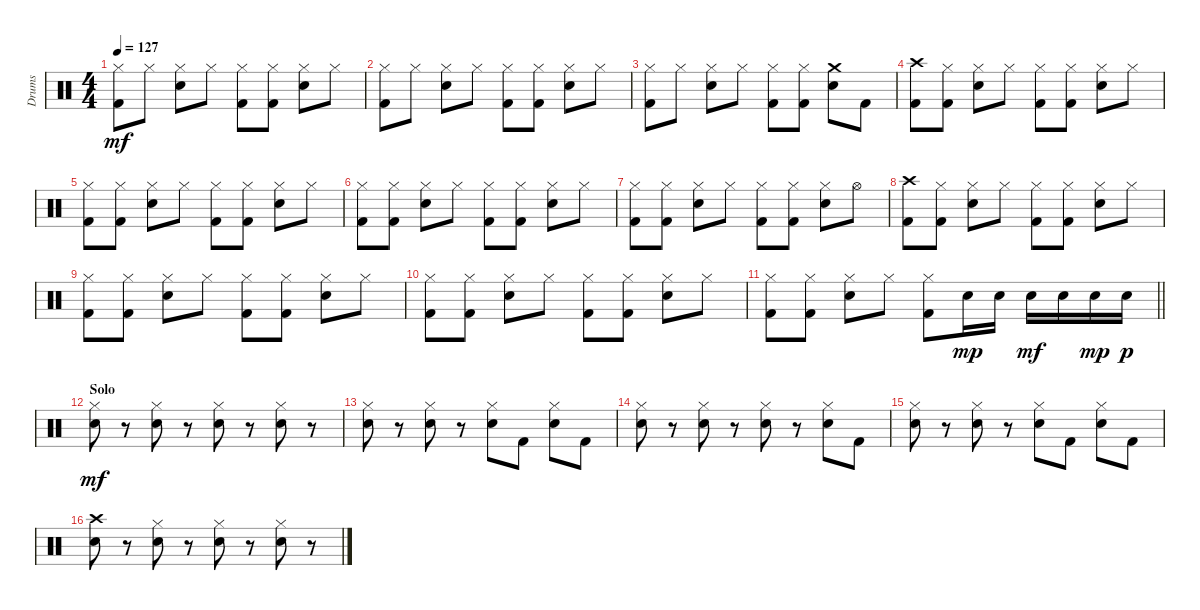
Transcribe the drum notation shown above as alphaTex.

\track ("Drums" "Drums") {instrument percussion}
\staff {score}
\articulation defaults
\ts (4 4)
\tempo 127
\clef neutral
\ks c
("Hi-Hat (closed)" "Kick (hit) 2").8{dy mf} "Hi-Hat (closed)".8 ("Hi-Hat (closed)" "Electric Snare (hit)").8 "Hi-Hat (closed)".8 ("Hi-Hat (closed)" "Kick (hit) 2").8 ("Hi-Hat (closed)" "Kick (hit) 2").8 ("Hi-Hat (closed)" "Electric Snare (hit)").8 "Hi-Hat (closed)".8 |
("Hi-Hat (closed)" "Kick (hit) 2").8 "Hi-Hat (closed)".8 ("Hi-Hat (closed)" "Electric Snare (hit)").8 "Hi-Hat (closed)".8 ("Hi-Hat (closed)" "Kick (hit) 2").8 ("Hi-Hat (closed)" "Kick (hit) 2").8 ("Hi-Hat (closed)" "Electric Snare (hit)").8 "Hi-Hat (closed)".8 |
("Hi-Hat (closed)" "Kick (hit) 2").8 "Hi-Hat (closed)".8 ("Hi-Hat (closed)" "Electric Snare (hit)").8 "Hi-Hat (closed)".8 ("Hi-Hat (closed)" "Kick (hit) 2").8 ("Hi-Hat (closed)" "Kick (hit) 2").8 ("Crash medium (hit)" "Electric Snare (hit)").8 "Kick (hit) 2".8 |
("Crash high (hit)" "Kick (hit) 2").8 ("Hi-Hat (closed)" "Kick (hit) 2").8 ("Hi-Hat (closed)" "Electric Snare (hit)").8 "Hi-Hat (closed)".8 ("Hi-Hat (closed)" "Kick (hit) 2").8 ("Hi-Hat (closed)" "Kick (hit) 2").8 ("Hi-Hat (closed)" "Electric Snare (hit)").8 "Hi-Hat (closed)".8 |
("Hi-Hat (closed)" "Kick (hit) 2").8 ("Hi-Hat (closed)" "Kick (hit) 2").8 ("Hi-Hat (closed)" "Electric Snare (hit)").8 "Hi-Hat (closed)".8 ("Hi-Hat (closed)" "Kick (hit) 2").8 ("Hi-Hat (closed)" "Kick (hit) 2").8 ("Hi-Hat (closed)" "Electric Snare (hit)").8 "Hi-Hat (closed)".8 |
("Hi-Hat (closed)" "Kick (hit) 2").8 ("Hi-Hat (closed)" "Kick (hit) 2").8 ("Hi-Hat (closed)" "Electric Snare (hit)").8 "Hi-Hat (closed)".8 ("Hi-Hat (closed)" "Kick (hit) 2").8 ("Hi-Hat (closed)" "Kick (hit) 2").8 ("Hi-Hat (closed)" "Electric Snare (hit)").8 "Hi-Hat (closed)".8 |
("Hi-Hat (closed)" "Kick (hit) 2").8 ("Hi-Hat (closed)" "Kick (hit) 2").8 ("Hi-Hat (closed)" "Electric Snare (hit)").8 "Hi-Hat (closed)".8 ("Hi-Hat (closed)" "Kick (hit) 2").8 ("Hi-Hat (closed)" "Kick (hit) 2").8 ("Hi-Hat (closed)" "Electric Snare (hit)").8 "Hi-Hat (open)".8 |
("Crash high (hit)" "Kick (hit) 2").8 ("Hi-Hat (closed)" "Kick (hit) 2").8 ("Hi-Hat (closed)" "Electric Snare (hit)").8 "Hi-Hat (closed)".8 ("Hi-Hat (closed)" "Kick (hit) 2").8 ("Hi-Hat (closed)" "Kick (hit) 2").8 ("Hi-Hat (closed)" "Electric Snare (hit)").8 "Hi-Hat (closed)".8 |
("Hi-Hat (closed)" "Kick (hit) 2").8 ("Hi-Hat (closed)" "Kick (hit) 2").8 ("Hi-Hat (closed)" "Electric Snare (hit)").8 "Hi-Hat (closed)".8 ("Hi-Hat (closed)" "Kick (hit) 2").8 ("Hi-Hat (closed)" "Kick (hit) 2").8 ("Hi-Hat (closed)" "Electric Snare (hit)").8 "Hi-Hat (closed)".8 |
("Hi-Hat (closed)" "Kick (hit) 2").8 ("Hi-Hat (closed)" "Kick (hit) 2").8 ("Hi-Hat (closed)" "Electric Snare (hit)").8 "Hi-Hat (closed)".8 ("Hi-Hat (closed)" "Kick (hit) 2").8 ("Hi-Hat (closed)" "Kick (hit) 2").8 ("Hi-Hat (closed)" "Electric Snare (hit)").8 "Hi-Hat (closed)".8 |
\barLineRight lightlight
("Hi-Hat (closed)" "Kick (hit) 2").8 ("Hi-Hat (closed)" "Kick (hit) 2").8 ("Hi-Hat (closed)" "Electric Snare (hit)").8 "Hi-Hat (closed)".8 ("Hi-Hat (closed)" "Kick (hit) 2").8 "Electric Snare (hit)".16{dy mp} "Electric Snare (hit)".16 "Electric Snare (hit)".16{dy mf} "Electric Snare (hit)".16 "Electric Snare (hit)".16{dy mp} "Electric Snare (hit)".16{dy p} |
\section ("" "Solo")
("Hi-Hat (closed)" "Electric Snare (hit)").8{dy mf} r.8 ("Hi-Hat (closed)" "Electric Snare (hit)").8 r.8 ("Hi-Hat (closed)" "Electric Snare (hit)").8 r.8 ("Hi-Hat (closed)" "Electric Snare (hit)").8 r.8 |
("Hi-Hat (closed)" "Electric Snare (hit)").8 r.8 ("Hi-Hat (closed)" "Electric Snare (hit)").8 r.8 ("Hi-Hat (closed)" "Electric Snare (hit)").8 "Kick (hit) 2".8 ("Hi-Hat (closed)" "Electric Snare (hit)").8 "Kick (hit) 2".8 |
("Hi-Hat (closed)" "Electric Snare (hit)").8 r.8 ("Hi-Hat (closed)" "Electric Snare (hit)").8 r.8 ("Hi-Hat (closed)" "Electric Snare (hit)").8 r.8 ("Hi-Hat (closed)" "Electric Snare (hit)").8 "Kick (hit) 2".8 |
("Hi-Hat (closed)" "Electric Snare (hit)").8 r.8 ("Hi-Hat (closed)" "Electric Snare (hit)").8 r.8 ("Hi-Hat (closed)" "Electric Snare (hit)").8 "Kick (hit) 2".8 ("Hi-Hat (closed)" "Electric Snare (hit)").8 "Kick (hit) 2".8 |
("Crash high (hit)" "Electric Snare (hit)").8 r.8 ("Hi-Hat (closed)" "Electric Snare (hit)").8 r.8 ("Hi-Hat (closed)" "Electric Snare (hit)").8 r.8 ("Hi-Hat (closed)" "Electric Snare (hit)").8 r.8
